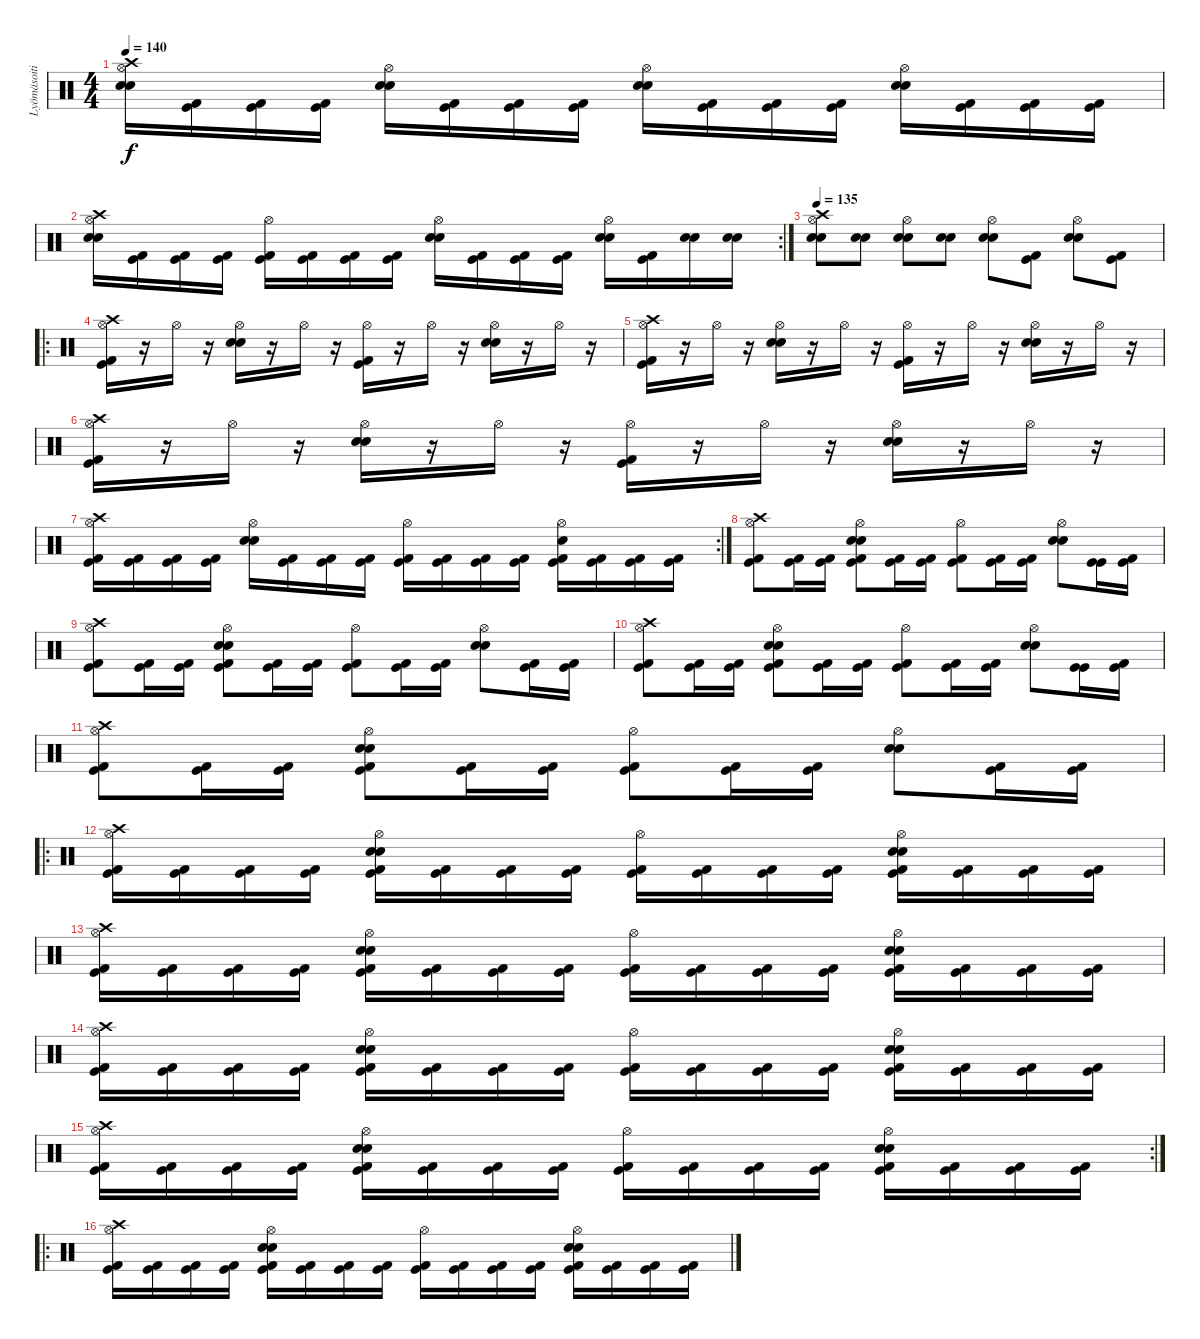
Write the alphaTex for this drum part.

\track ("Lyömäsoitin" "Lyömäsoiti") {instrument percussion}
\staff {score}
\articulation defaults
\ts (4 4)
\tempo 140
\clef neutral
\ks c
("Crash high (hit)" "Hi-Hat (open)" "Snare (hit) 2" "Electric Snare (hit)").16{dy f} ("Kick (hit) 2" "Kick (hit)").16 ("Kick (hit) 2" "Kick (hit)").16 ("Kick (hit) 2" "Kick (hit)").16 ("Hi-Hat (open)" "Snare (hit) 2" "Electric Snare (hit)").16 ("Kick (hit) 2" "Kick (hit)").16 ("Kick (hit) 2" "Kick (hit)").16 ("Kick (hit) 2" "Kick (hit)").16 ("Hi-Hat (open)" "Snare (hit) 2" "Electric Snare (hit)").16 ("Kick (hit) 2" "Kick (hit)").16 ("Kick (hit) 2" "Kick (hit)").16 ("Kick (hit) 2" "Kick (hit)").16 ("Hi-Hat (open)" "Snare (hit) 2" "Electric Snare (hit)").16 ("Kick (hit) 2" "Kick (hit)").16 ("Kick (hit) 2" "Kick (hit)").16 ("Kick (hit) 2" "Kick (hit)").16 |
\rc 2
("Crash high (hit)" "Hi-Hat (open)" "Electric Snare (hit)" "Snare (hit) 2").16 ("Kick (hit) 2" "Kick (hit)").16 ("Kick (hit) 2" "Kick (hit)").16 ("Kick (hit) 2" "Kick (hit)").16 ("Hi-Hat (open)" "Kick (hit) 2" "Kick (hit)").16 ("Kick (hit) 2" "Kick (hit)").16 ("Kick (hit) 2" "Kick (hit)").16 ("Kick (hit) 2" "Kick (hit)").16 ("Hi-Hat (open)" "Electric Snare (hit)" "Snare (hit) 2").16 ("Kick (hit) 2" "Kick (hit)").16 ("Kick (hit) 2" "Kick (hit)").16 ("Kick (hit) 2" "Kick (hit)").16 ("Hi-Hat (open)" "Snare (hit) 2" "Snare (hit) 2").16 ("Kick (hit) 2" "Kick (hit)").16 ("Snare (hit) 2" "Electric Snare (hit)").16 ("Electric Snare (hit)" "Snare (hit) 2").16 |
\tempo 135
("Crash high (hit)" "Hi-Hat (open)" "Electric Snare (hit)" "Snare (hit) 2").8 ("Electric Snare (hit)" "Snare (hit) 2").8 ("Hi-Hat (open)" "Electric Snare (hit)" "Snare (hit) 2").8 ("Electric Snare (hit)" "Snare (hit) 2").8 ("Hi-Hat (open)" "Electric Snare (hit)" "Snare (hit) 2").8 ("Kick (hit) 2" "Kick (hit)").8 ("Hi-Hat (open)" "Electric Snare (hit)" "Snare (hit) 2").8 ("Kick (hit) 2" "Kick (hit)").8 |
\ro
("Crash high (hit)" "Hi-Hat (open)" "Kick (hit)" "Kick (hit) 2").16 r.16 "Hi-Hat (open)".16 r.16 ("Hi-Hat (open)" "Electric Snare (hit)" "Snare (hit) 2").16 r.16 "Hi-Hat (open)".16 r.16 ("Hi-Hat (open)" "Kick (hit) 2" "Kick (hit)").16 r.16 "Hi-Hat (open)".16 r.16 ("Hi-Hat (open)" "Electric Snare (hit)" "Snare (hit) 2").16 r.16 "Hi-Hat (open)".16 r.16 |
("Crash high (hit)" "Hi-Hat (open)" "Kick (hit)" "Kick (hit) 2").16 r.16 "Hi-Hat (open)".16 r.16 ("Hi-Hat (open)" "Electric Snare (hit)" "Snare (hit) 2").16 r.16 "Hi-Hat (open)".16 r.16 ("Hi-Hat (open)" "Kick (hit) 2" "Kick (hit)").16 r.16 "Hi-Hat (open)".16 r.16 ("Hi-Hat (open)" "Electric Snare (hit)" "Snare (hit) 2").16 r.16 "Hi-Hat (open)".16 r.16 |
("Crash high (hit)" "Hi-Hat (open)" "Kick (hit)" "Kick (hit) 2").16 r.16 "Hi-Hat (open)".16 r.16 ("Hi-Hat (open)" "Electric Snare (hit)" "Snare (hit) 2").16 r.16 "Hi-Hat (open)".16 r.16 ("Hi-Hat (open)" "Kick (hit) 2" "Kick (hit)").16 r.16 "Hi-Hat (open)".16 r.16 ("Hi-Hat (open)" "Electric Snare (hit)" "Snare (hit) 2").16 r.16 "Hi-Hat (open)".16 r.16 |
\rc 2
("Crash high (hit)" "Hi-Hat (open)" "Kick (hit)" "Kick (hit) 2").16 ("Kick (hit)" "Kick (hit) 2").16 ("Kick (hit)" "Kick (hit) 2").16 ("Kick (hit)" "Kick (hit) 2").16 ("Hi-Hat (open)" "Electric Snare (hit)" "Snare (hit) 2").16 ("Kick (hit) 2" "Kick (hit)").16 ("Kick (hit) 2" "Kick (hit)").16 ("Kick (hit) 2" "Kick (hit)").16 ("Hi-Hat (open)" "Kick (hit) 2" "Kick (hit)").16 ("Kick (hit) 2" "Kick (hit)").16 ("Kick (hit) 2" "Kick (hit)").16 ("Kick (hit) 2" "Kick (hit)").16 ("Hi-Hat (open)" "Electric Snare (hit)" "Kick (hit) 2" "Kick (hit)").16 ("Kick (hit) 2" "Kick (hit)").16 ("Kick (hit) 2" "Kick (hit)").16 ("Kick (hit) 2" "Kick (hit)").16 |
("Crash high (hit)" "Hi-Hat (open)" "Kick (hit) 2" "Kick (hit)").8 ("Kick (hit) 2" "Kick (hit)").16 ("Kick (hit) 2" "Kick (hit)").16 ("Hi-Hat (open)" "Snare (hit) 2" "Electric Snare (hit)" "Kick (hit) 2" "Kick (hit)").8 ("Kick (hit) 2" "Kick (hit)").16 ("Kick (hit) 2" "Kick (hit)").16 ("Hi-Hat (open)" "Kick (hit) 2" "Kick (hit)").8 ("Kick (hit) 2" "Kick (hit)").16 ("Kick (hit) 2" "Kick (hit)").16 ("Hi-Hat (open)" "Snare (hit) 2" "Electric Snare (hit)").8 ("Kick (hit)" "Kick (hit)").16 ("Kick (hit) 2" "Kick (hit)").16 |
("Crash high (hit)" "Hi-Hat (open)" "Kick (hit) 2" "Kick (hit)").8 ("Kick (hit) 2" "Kick (hit)").16 ("Kick (hit) 2" "Kick (hit)").16 ("Hi-Hat (open)" "Snare (hit) 2" "Electric Snare (hit)" "Kick (hit) 2" "Kick (hit)").8 ("Kick (hit) 2" "Kick (hit)").16 ("Kick (hit) 2" "Kick (hit)").16 ("Hi-Hat (open)" "Kick (hit) 2" "Kick (hit)").8 ("Kick (hit) 2" "Kick (hit)").16 ("Kick (hit) 2" "Kick (hit)").16 ("Hi-Hat (open)" "Snare (hit) 2" "Electric Snare (hit)").8 ("Kick (hit)" "Kick (hit) 2").16 ("Kick (hit)" "Kick (hit) 2").16 |
("Crash high (hit)" "Hi-Hat (open)" "Kick (hit) 2" "Kick (hit)").8 ("Kick (hit) 2" "Kick (hit)").16 ("Kick (hit) 2" "Kick (hit)").16 ("Hi-Hat (open)" "Snare (hit) 2" "Electric Snare (hit)" "Kick (hit) 2" "Kick (hit)").8 ("Kick (hit) 2" "Kick (hit)").16 ("Kick (hit) 2" "Kick (hit)").16 ("Hi-Hat (open)" "Kick (hit) 2" "Kick (hit)").8 ("Kick (hit) 2" "Kick (hit)").16 ("Kick (hit) 2" "Kick (hit)").16 ("Hi-Hat (open)" "Snare (hit) 2" "Electric Snare (hit)").8 ("Kick (hit)" "Kick (hit)").16 ("Kick (hit) 2" "Kick (hit)").16 |
("Crash high (hit)" "Hi-Hat (open)" "Kick (hit) 2" "Kick (hit)").8 ("Kick (hit) 2" "Kick (hit)").16 ("Kick (hit) 2" "Kick (hit)").16 ("Hi-Hat (open)" "Snare (hit) 2" "Electric Snare (hit)" "Kick (hit) 2" "Kick (hit)").8 ("Kick (hit) 2" "Kick (hit)").16 ("Kick (hit) 2" "Kick (hit)").16 ("Hi-Hat (open)" "Kick (hit) 2" "Kick (hit)").8 ("Kick (hit) 2" "Kick (hit)").16 ("Kick (hit) 2" "Kick (hit)").16 ("Hi-Hat (open)" "Snare (hit) 2" "Electric Snare (hit)").8 ("Kick (hit)" "Kick (hit) 2").16 ("Kick (hit)" "Kick (hit) 2").16 |
\ro
("Crash high (hit)" "Hi-Hat (open)" "Kick (hit) 2" "Kick (hit)").16 ("Kick (hit) 2" "Kick (hit)").16 ("Kick (hit) 2" "Kick (hit)").16 ("Kick (hit) 2" "Kick (hit)").16 ("Hi-Hat (open)" "Electric Snare (hit)" "Snare (hit) 2" "Kick (hit) 2" "Kick (hit)").16 ("Kick (hit) 2" "Kick (hit)").16 ("Kick (hit) 2" "Kick (hit)").16 ("Kick (hit) 2" "Kick (hit)").16 ("Hi-Hat (open)" "Kick (hit) 2" "Kick (hit)").16 ("Kick (hit) 2" "Kick (hit)").16 ("Kick (hit) 2" "Kick (hit)").16 ("Kick (hit) 2" "Kick (hit)").16 ("Hi-Hat (open)" "Electric Snare (hit)" "Snare (hit) 2" "Kick (hit) 2" "Kick (hit)").16 ("Kick (hit) 2" "Kick (hit)").16 ("Kick (hit) 2" "Kick (hit)").16 ("Kick (hit) 2" "Kick (hit)").16 |
("Crash high (hit)" "Hi-Hat (open)" "Kick (hit) 2" "Kick (hit)").16 ("Kick (hit) 2" "Kick (hit)").16 ("Kick (hit) 2" "Kick (hit)").16 ("Kick (hit) 2" "Kick (hit)").16 ("Hi-Hat (open)" "Electric Snare (hit)" "Snare (hit) 2" "Kick (hit) 2" "Kick (hit)").16 ("Kick (hit) 2" "Kick (hit)").16 ("Kick (hit) 2" "Kick (hit)").16 ("Kick (hit) 2" "Kick (hit)").16 ("Hi-Hat (open)" "Kick (hit) 2" "Kick (hit)").16 ("Kick (hit) 2" "Kick (hit)").16 ("Kick (hit) 2" "Kick (hit)").16 ("Kick (hit) 2" "Kick (hit)").16 ("Hi-Hat (open)" "Electric Snare (hit)" "Snare (hit) 2" "Kick (hit) 2" "Kick (hit)").16 ("Kick (hit) 2" "Kick (hit)").16 ("Kick (hit) 2" "Kick (hit)").16 ("Kick (hit) 2" "Kick (hit)").16 |
("Crash high (hit)" "Hi-Hat (open)" "Kick (hit) 2" "Kick (hit)").16 ("Kick (hit) 2" "Kick (hit)").16 ("Kick (hit) 2" "Kick (hit)").16 ("Kick (hit) 2" "Kick (hit)").16 ("Hi-Hat (open)" "Electric Snare (hit)" "Snare (hit) 2" "Kick (hit) 2" "Kick (hit)").16 ("Kick (hit) 2" "Kick (hit)").16 ("Kick (hit) 2" "Kick (hit)").16 ("Kick (hit) 2" "Kick (hit)").16 ("Hi-Hat (open)" "Kick (hit) 2" "Kick (hit)").16 ("Kick (hit) 2" "Kick (hit)").16 ("Kick (hit) 2" "Kick (hit)").16 ("Kick (hit) 2" "Kick (hit)").16 ("Hi-Hat (open)" "Electric Snare (hit)" "Snare (hit) 2" "Kick (hit) 2" "Kick (hit)").16 ("Kick (hit) 2" "Kick (hit)").16 ("Kick (hit) 2" "Kick (hit)").16 ("Kick (hit) 2" "Kick (hit)").16 |
\rc 2
("Crash high (hit)" "Hi-Hat (open)" "Kick (hit) 2" "Kick (hit)").16 ("Kick (hit) 2" "Kick (hit)").16 ("Kick (hit) 2" "Kick (hit)").16 ("Kick (hit) 2" "Kick (hit)").16 ("Hi-Hat (open)" "Electric Snare (hit)" "Snare (hit) 2" "Kick (hit) 2" "Kick (hit)").16 ("Kick (hit) 2" "Kick (hit)").16 ("Kick (hit) 2" "Kick (hit)").16 ("Kick (hit) 2" "Kick (hit)").16 ("Hi-Hat (open)" "Kick (hit) 2" "Kick (hit)").16 ("Kick (hit) 2" "Kick (hit)").16 ("Kick (hit) 2" "Kick (hit)").16 ("Kick (hit) 2" "Kick (hit)").16 ("Hi-Hat (open)" "Electric Snare (hit)" "Snare (hit) 2" "Kick (hit) 2" "Kick (hit)").16 ("Kick (hit) 2" "Kick (hit)").16 ("Kick (hit) 2" "Kick (hit)").16 ("Kick (hit) 2" "Kick (hit)").16 |
\ro
("Crash high (hit)" "Hi-Hat (open)" "Kick (hit) 2" "Kick (hit)").16 ("Kick (hit) 2" "Kick (hit)").16 ("Kick (hit) 2" "Kick (hit)").16 ("Kick (hit) 2" "Kick (hit)").16 ("Hi-Hat (open)" "Electric Snare (hit)" "Snare (hit) 2" "Kick (hit) 2" "Kick (hit)").16 ("Kick (hit) 2" "Kick (hit)").16 ("Kick (hit) 2" "Kick (hit)").16 ("Kick (hit) 2" "Kick (hit)").16 ("Hi-Hat (open)" "Kick (hit) 2" "Kick (hit)").16 ("Kick (hit) 2" "Kick (hit)").16 ("Kick (hit) 2" "Kick (hit)").16 ("Kick (hit) 2" "Kick (hit)").16 ("Hi-Hat (open)" "Electric Snare (hit)" "Snare (hit) 2" "Kick (hit) 2" "Kick (hit)").16 ("Kick (hit) 2" "Kick (hit)").16 ("Kick (hit) 2" "Kick (hit)").16 ("Kick (hit) 2" "Kick (hit)").16
